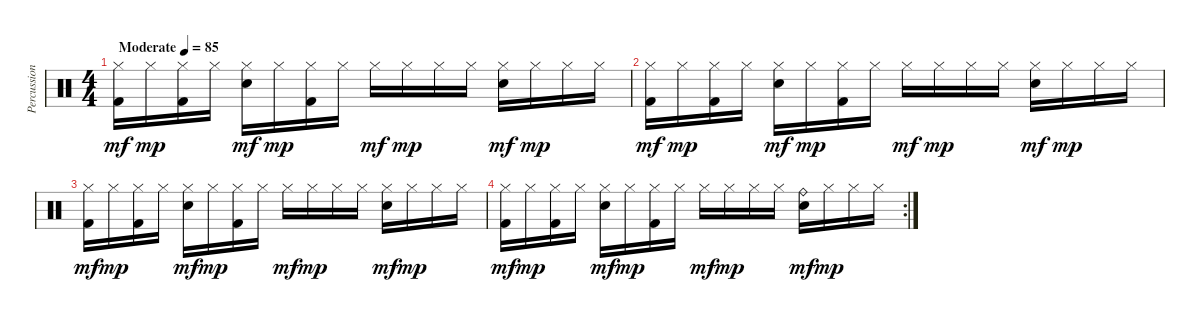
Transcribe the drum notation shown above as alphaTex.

\track ("Percussion" "Percussion") {instrument percussion}
\staff {score}
\articulation defaults
\ts (4 4)
\tempo (85 "Moderate")
\clef neutral
\ks c
("Hi-Hat (closed)" "Kick (hit) 2").16{dy mf} "Hi-Hat (closed)".16{dy mp} ("Hi-Hat (closed)" "Kick (hit) 2").16 "Hi-Hat (closed)".16 ("Hi-Hat (closed)" "Electric Snare (hit)").16{dy mf} "Hi-Hat (closed)".16{dy mp} ("Hi-Hat (closed)" "Kick (hit) 2").16 "Hi-Hat (closed)".16 "Hi-Hat (closed)".16{dy mf} "Hi-Hat (closed)".16{dy mp} "Hi-Hat (closed)".16 "Hi-Hat (closed)".16 ("Hi-Hat (closed)" "Electric Snare (hit)").16{dy mf} "Hi-Hat (closed)".16{dy mp} "Hi-Hat (closed)".16 "Hi-Hat (closed)".16 |
("Hi-Hat (closed)" "Kick (hit) 2").16{dy mf} "Hi-Hat (closed)".16{dy mp} ("Hi-Hat (closed)" "Kick (hit) 2").16 "Hi-Hat (closed)".16 ("Hi-Hat (closed)" "Electric Snare (hit)").16{dy mf} "Hi-Hat (closed)".16{dy mp} ("Hi-Hat (closed)" "Kick (hit) 2").16 "Hi-Hat (closed)".16 "Hi-Hat (closed)".16{dy mf} "Hi-Hat (closed)".16{dy mp} "Hi-Hat (closed)".16 "Hi-Hat (closed)".16 ("Hi-Hat (closed)" "Electric Snare (hit)").16{dy mf} "Hi-Hat (closed)".16{dy mp} "Hi-Hat (closed)".16 "Hi-Hat (closed)".16 |
("Hi-Hat (closed)" "Kick (hit) 2").16{dy mf} "Hi-Hat (closed)".16{dy mp} ("Hi-Hat (closed)" "Kick (hit) 2").16 "Hi-Hat (closed)".16 ("Hi-Hat (closed)" "Electric Snare (hit)").16{dy mf} "Hi-Hat (closed)".16{dy mp} ("Hi-Hat (closed)" "Kick (hit) 2").16 "Hi-Hat (closed)".16 "Hi-Hat (closed)".16{dy mf} "Hi-Hat (closed)".16{dy mp} "Hi-Hat (closed)".16 "Hi-Hat (closed)".16 ("Hi-Hat (closed)" "Electric Snare (hit)").16{dy mf} "Hi-Hat (closed)".16{dy mp} "Hi-Hat (closed)".16 "Hi-Hat (closed)".16 |
\rc 2
("Hi-Hat (closed)" "Kick (hit) 2").16{dy mf} "Hi-Hat (closed)".16{dy mp} ("Hi-Hat (closed)" "Kick (hit) 2").16 "Hi-Hat (closed)".16 ("Hi-Hat (closed)" "Electric Snare (hit)").16{dy mf} "Hi-Hat (closed)".16{dy mp} ("Hi-Hat (closed)" "Kick (hit) 2").16 "Hi-Hat (closed)".16 "Hi-Hat (closed)".16{dy mf} "Hi-Hat (closed)".16{dy mp} "Hi-Hat (closed)".16 "Hi-Hat (closed)".16 ("Ride (bell)" "Electric Snare (hit)").16{dy mf} "Hi-Hat (closed)".16{dy mp} "Hi-Hat (closed)".16 "Hi-Hat (closed)".16
